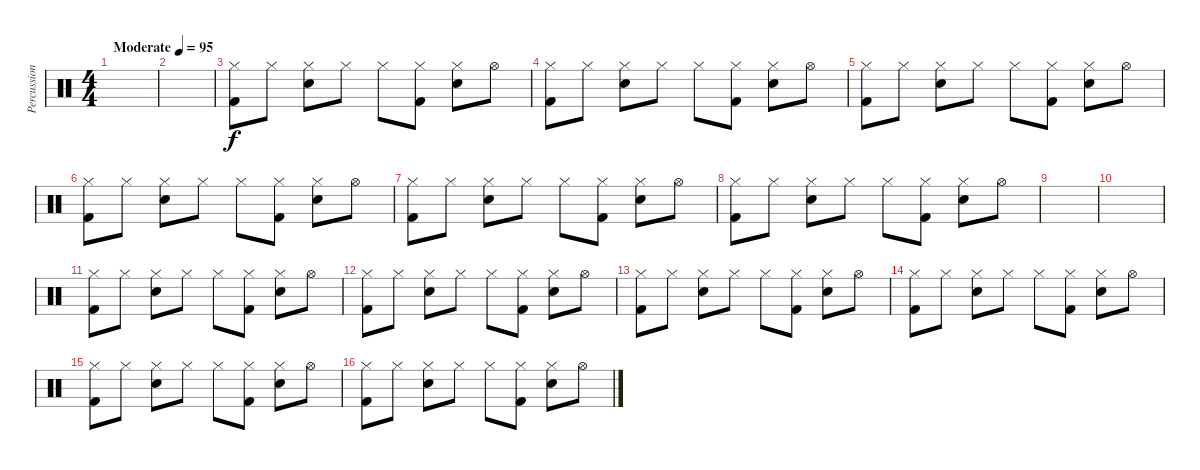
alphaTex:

\track ("Percussion" "Percussion") {instrument percussion}
\staff {score}
\articulation defaults
\ts (4 4)
\tempo (95 "Moderate")
\clef neutral
\ks c
|
|
("Kick (hit) 2" "Hi-Hat (closed)").8 "Hi-Hat (closed)".8 ("Snare (hit) 2" "Hi-Hat (closed)").8 "Hi-Hat (closed)".8 "Hi-Hat (closed)".8 ("Kick (hit) 2" "Hi-Hat (closed)").8 ("Snare (hit) 2" "Hi-Hat (closed)").8 "Hi-Hat (open)".8 |
("Kick (hit) 2" "Hi-Hat (closed)").8 "Hi-Hat (closed)".8 ("Snare (hit) 2" "Hi-Hat (closed)").8 "Hi-Hat (closed)".8 "Hi-Hat (closed)".8 ("Kick (hit) 2" "Hi-Hat (closed)").8 ("Snare (hit) 2" "Hi-Hat (closed)").8 "Hi-Hat (open)".8 |
("Kick (hit) 2" "Hi-Hat (closed)").8 "Hi-Hat (closed)".8 ("Snare (hit) 2" "Hi-Hat (closed)").8 "Hi-Hat (closed)".8 "Hi-Hat (closed)".8 ("Kick (hit) 2" "Hi-Hat (closed)").8 ("Snare (hit) 2" "Hi-Hat (closed)").8 "Hi-Hat (open)".8 |
("Kick (hit) 2" "Hi-Hat (closed)").8 "Hi-Hat (closed)".8 ("Snare (hit) 2" "Hi-Hat (closed)").8 "Hi-Hat (closed)".8 "Hi-Hat (closed)".8 ("Kick (hit) 2" "Hi-Hat (closed)").8 ("Snare (hit) 2" "Hi-Hat (closed)").8 "Hi-Hat (open)".8 |
("Kick (hit) 2" "Hi-Hat (closed)").8 "Hi-Hat (closed)".8 ("Snare (hit) 2" "Hi-Hat (closed)").8 "Hi-Hat (closed)".8 "Hi-Hat (closed)".8 ("Kick (hit) 2" "Hi-Hat (closed)").8 ("Snare (hit) 2" "Hi-Hat (closed)").8 "Hi-Hat (open)".8 |
("Kick (hit) 2" "Hi-Hat (closed)").8 "Hi-Hat (closed)".8 ("Snare (hit) 2" "Hi-Hat (closed)").8 "Hi-Hat (closed)".8 "Hi-Hat (closed)".8 ("Kick (hit) 2" "Hi-Hat (closed)").8 ("Snare (hit) 2" "Hi-Hat (closed)").8 "Hi-Hat (open)".8 |
|
|
("Kick (hit) 2" "Hi-Hat (closed)").8 "Hi-Hat (closed)".8 ("Snare (hit) 2" "Hi-Hat (closed)").8 "Hi-Hat (closed)".8 "Hi-Hat (closed)".8 ("Kick (hit) 2" "Hi-Hat (closed)").8 ("Snare (hit) 2" "Hi-Hat (closed)").8 "Hi-Hat (open)".8 |
("Kick (hit) 2" "Hi-Hat (closed)").8 "Hi-Hat (closed)".8 ("Snare (hit) 2" "Hi-Hat (closed)").8 "Hi-Hat (closed)".8 "Hi-Hat (closed)".8 ("Kick (hit) 2" "Hi-Hat (closed)").8 ("Snare (hit) 2" "Hi-Hat (closed)").8 "Hi-Hat (open)".8 |
("Kick (hit) 2" "Hi-Hat (closed)").8 "Hi-Hat (closed)".8 ("Snare (hit) 2" "Hi-Hat (closed)").8 "Hi-Hat (closed)".8 "Hi-Hat (closed)".8 ("Kick (hit) 2" "Hi-Hat (closed)").8 ("Snare (hit) 2" "Hi-Hat (closed)").8 "Hi-Hat (open)".8 |
("Kick (hit) 2" "Hi-Hat (closed)").8 "Hi-Hat (closed)".8 ("Snare (hit) 2" "Hi-Hat (closed)").8 "Hi-Hat (closed)".8 "Hi-Hat (closed)".8 ("Kick (hit) 2" "Hi-Hat (closed)").8 ("Snare (hit) 2" "Hi-Hat (closed)").8 "Hi-Hat (open)".8 |
("Kick (hit) 2" "Hi-Hat (closed)").8 "Hi-Hat (closed)".8 ("Snare (hit) 2" "Hi-Hat (closed)").8 "Hi-Hat (closed)".8 "Hi-Hat (closed)".8 ("Kick (hit) 2" "Hi-Hat (closed)").8 ("Snare (hit) 2" "Hi-Hat (closed)").8 "Hi-Hat (open)".8 |
("Kick (hit) 2" "Hi-Hat (closed)").8 "Hi-Hat (closed)".8 ("Snare (hit) 2" "Hi-Hat (closed)").8 "Hi-Hat (closed)".8 "Hi-Hat (closed)".8 ("Kick (hit) 2" "Hi-Hat (closed)").8 ("Snare (hit) 2" "Hi-Hat (closed)").8 "Hi-Hat (open)".8
